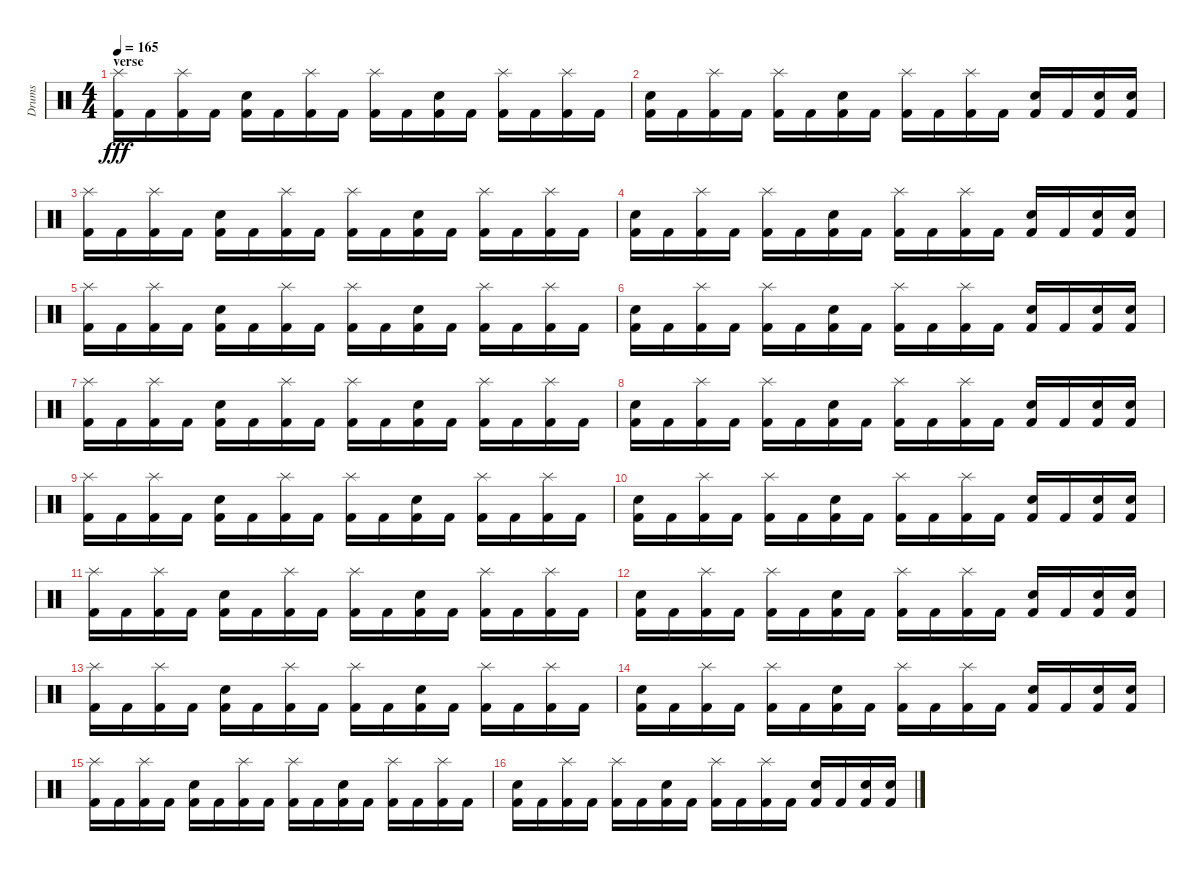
\track ("Drums" "Drums") {instrument percussion}
\staff {score}
\articulation defaults
\ts (4 4)
\section ("" "verse")
\tempo 165
\clef neutral
\ks c
("Splash (hit)" "Kick (hit) 2").16{dy fff} "Kick (hit) 2".16 ("Splash (hit)" "Kick (hit) 2").16 "Kick (hit) 2".16 ("Snare (hit) 2" "Kick (hit) 2").16 "Kick (hit) 2".16 ("Splash (hit)" "Kick (hit) 2").16 "Kick (hit) 2".16 ("Splash (hit)" "Kick (hit) 2").16 "Kick (hit) 2".16 ("Snare (hit) 2" "Kick (hit) 2").16 "Kick (hit) 2".16 ("Splash (hit)" "Kick (hit) 2").16 "Kick (hit) 2".16 ("Splash (hit)" "Kick (hit) 2").16 "Kick (hit) 2".16 |
("Snare (hit) 2" "Kick (hit) 2").16 "Kick (hit) 2".16 ("Splash (hit)" "Kick (hit) 2").16 "Kick (hit) 2".16 ("Splash (hit)" "Kick (hit) 2").16 "Kick (hit) 2".16 ("Snare (hit) 2" "Kick (hit) 2").16 "Kick (hit) 2".16 ("Splash (hit)" "Kick (hit) 2").16 "Kick (hit) 2".16 ("Splash (hit)" "Kick (hit) 2").16 "Kick (hit) 2".16 ("Snare (hit) 2" "Kick (hit) 2").16 "Kick (hit) 2".16 ("Snare (hit) 2" "Kick (hit) 2").16 ("Snare (hit) 2" "Kick (hit) 2").16 |
("Splash (hit)" "Kick (hit) 2").16 "Kick (hit) 2".16 ("Splash (hit)" "Kick (hit) 2").16 "Kick (hit) 2".16 ("Snare (hit) 2" "Kick (hit) 2").16 "Kick (hit) 2".16 ("Splash (hit)" "Kick (hit) 2").16 "Kick (hit) 2".16 ("Splash (hit)" "Kick (hit) 2").16 "Kick (hit) 2".16 ("Snare (hit) 2" "Kick (hit) 2").16 "Kick (hit) 2".16 ("Splash (hit)" "Kick (hit) 2").16 "Kick (hit) 2".16 ("Splash (hit)" "Kick (hit) 2").16 "Kick (hit) 2".16 |
("Snare (hit) 2" "Kick (hit) 2").16 "Kick (hit) 2".16 ("Splash (hit)" "Kick (hit) 2").16 "Kick (hit) 2".16 ("Splash (hit)" "Kick (hit) 2").16 "Kick (hit) 2".16 ("Snare (hit) 2" "Kick (hit) 2").16 "Kick (hit) 2".16 ("Splash (hit)" "Kick (hit) 2").16 "Kick (hit) 2".16 ("Splash (hit)" "Kick (hit) 2").16 "Kick (hit) 2".16 ("Snare (hit) 2" "Kick (hit) 2").16 "Kick (hit) 2".16 ("Snare (hit) 2" "Kick (hit) 2").16 ("Snare (hit) 2" "Kick (hit) 2").16 |
("Splash (hit)" "Kick (hit) 2").16 "Kick (hit) 2".16 ("Splash (hit)" "Kick (hit) 2").16 "Kick (hit) 2".16 ("Snare (hit) 2" "Kick (hit) 2").16 "Kick (hit) 2".16 ("Splash (hit)" "Kick (hit) 2").16 "Kick (hit) 2".16 ("Splash (hit)" "Kick (hit) 2").16 "Kick (hit) 2".16 ("Snare (hit) 2" "Kick (hit) 2").16 "Kick (hit) 2".16 ("Splash (hit)" "Kick (hit) 2").16 "Kick (hit) 2".16 ("Splash (hit)" "Kick (hit) 2").16 "Kick (hit) 2".16 |
("Snare (hit) 2" "Kick (hit) 2").16 "Kick (hit) 2".16 ("Splash (hit)" "Kick (hit) 2").16 "Kick (hit) 2".16 ("Splash (hit)" "Kick (hit) 2").16 "Kick (hit) 2".16 ("Snare (hit) 2" "Kick (hit) 2").16 "Kick (hit) 2".16 ("Splash (hit)" "Kick (hit) 2").16 "Kick (hit) 2".16 ("Splash (hit)" "Kick (hit) 2").16 "Kick (hit) 2".16 ("Snare (hit) 2" "Kick (hit) 2").16 "Kick (hit) 2".16 ("Snare (hit) 2" "Kick (hit) 2").16 ("Snare (hit) 2" "Kick (hit) 2").16 |
("Splash (hit)" "Kick (hit) 2").16 "Kick (hit) 2".16 ("Splash (hit)" "Kick (hit) 2").16 "Kick (hit) 2".16 ("Snare (hit) 2" "Kick (hit) 2").16 "Kick (hit) 2".16 ("Splash (hit)" "Kick (hit) 2").16 "Kick (hit) 2".16 ("Splash (hit)" "Kick (hit) 2").16 "Kick (hit) 2".16 ("Snare (hit) 2" "Kick (hit) 2").16 "Kick (hit) 2".16 ("Splash (hit)" "Kick (hit) 2").16 "Kick (hit) 2".16 ("Splash (hit)" "Kick (hit) 2").16 "Kick (hit) 2".16 |
("Snare (hit) 2" "Kick (hit) 2").16 "Kick (hit) 2".16 ("Splash (hit)" "Kick (hit) 2").16 "Kick (hit) 2".16 ("Splash (hit)" "Kick (hit) 2").16 "Kick (hit) 2".16 ("Snare (hit) 2" "Kick (hit) 2").16 "Kick (hit) 2".16 ("Splash (hit)" "Kick (hit) 2").16 "Kick (hit) 2".16 ("Splash (hit)" "Kick (hit) 2").16 "Kick (hit) 2".16 ("Snare (hit) 2" "Kick (hit) 2").16 "Kick (hit) 2".16 ("Snare (hit) 2" "Kick (hit) 2").16 ("Snare (hit) 2" "Kick (hit) 2").16 |
("Splash (hit)" "Kick (hit) 2").16 "Kick (hit) 2".16 ("Splash (hit)" "Kick (hit) 2").16 "Kick (hit) 2".16 ("Snare (hit) 2" "Kick (hit) 2").16 "Kick (hit) 2".16 ("Splash (hit)" "Kick (hit) 2").16 "Kick (hit) 2".16 ("Splash (hit)" "Kick (hit) 2").16 "Kick (hit) 2".16 ("Snare (hit) 2" "Kick (hit) 2").16 "Kick (hit) 2".16 ("Splash (hit)" "Kick (hit) 2").16 "Kick (hit) 2".16 ("Splash (hit)" "Kick (hit) 2").16 "Kick (hit) 2".16 |
("Snare (hit) 2" "Kick (hit) 2").16 "Kick (hit) 2".16 ("Splash (hit)" "Kick (hit) 2").16 "Kick (hit) 2".16 ("Splash (hit)" "Kick (hit) 2").16 "Kick (hit) 2".16 ("Snare (hit) 2" "Kick (hit) 2").16 "Kick (hit) 2".16 ("Splash (hit)" "Kick (hit) 2").16 "Kick (hit) 2".16 ("Splash (hit)" "Kick (hit) 2").16 "Kick (hit) 2".16 ("Snare (hit) 2" "Kick (hit) 2").16 "Kick (hit) 2".16 ("Snare (hit) 2" "Kick (hit) 2").16 ("Snare (hit) 2" "Kick (hit) 2").16 |
("Splash (hit)" "Kick (hit) 2").16 "Kick (hit) 2".16 ("Splash (hit)" "Kick (hit) 2").16 "Kick (hit) 2".16 ("Snare (hit) 2" "Kick (hit) 2").16 "Kick (hit) 2".16 ("Splash (hit)" "Kick (hit) 2").16 "Kick (hit) 2".16 ("Splash (hit)" "Kick (hit) 2").16 "Kick (hit) 2".16 ("Snare (hit) 2" "Kick (hit) 2").16 "Kick (hit) 2".16 ("Splash (hit)" "Kick (hit) 2").16 "Kick (hit) 2".16 ("Splash (hit)" "Kick (hit) 2").16 "Kick (hit) 2".16 |
("Snare (hit) 2" "Kick (hit) 2").16 "Kick (hit) 2".16 ("Splash (hit)" "Kick (hit) 2").16 "Kick (hit) 2".16 ("Splash (hit)" "Kick (hit) 2").16 "Kick (hit) 2".16 ("Snare (hit) 2" "Kick (hit) 2").16 "Kick (hit) 2".16 ("Splash (hit)" "Kick (hit) 2").16 "Kick (hit) 2".16 ("Splash (hit)" "Kick (hit) 2").16 "Kick (hit) 2".16 ("Snare (hit) 2" "Kick (hit) 2").16 "Kick (hit) 2".16 ("Snare (hit) 2" "Kick (hit) 2").16 ("Snare (hit) 2" "Kick (hit) 2").16 |
("Splash (hit)" "Kick (hit) 2").16 "Kick (hit) 2".16 ("Splash (hit)" "Kick (hit) 2").16 "Kick (hit) 2".16 ("Snare (hit) 2" "Kick (hit) 2").16 "Kick (hit) 2".16 ("Splash (hit)" "Kick (hit) 2").16 "Kick (hit) 2".16 ("Splash (hit)" "Kick (hit) 2").16 "Kick (hit) 2".16 ("Snare (hit) 2" "Kick (hit) 2").16 "Kick (hit) 2".16 ("Splash (hit)" "Kick (hit) 2").16 "Kick (hit) 2".16 ("Splash (hit)" "Kick (hit) 2").16 "Kick (hit) 2".16 |
("Snare (hit) 2" "Kick (hit) 2").16 "Kick (hit) 2".16 ("Splash (hit)" "Kick (hit) 2").16 "Kick (hit) 2".16 ("Splash (hit)" "Kick (hit) 2").16 "Kick (hit) 2".16 ("Snare (hit) 2" "Kick (hit) 2").16 "Kick (hit) 2".16 ("Splash (hit)" "Kick (hit) 2").16 "Kick (hit) 2".16 ("Splash (hit)" "Kick (hit) 2").16 "Kick (hit) 2".16 ("Snare (hit) 2" "Kick (hit) 2").16 "Kick (hit) 2".16 ("Snare (hit) 2" "Kick (hit) 2").16 ("Snare (hit) 2" "Kick (hit) 2").16 |
("Splash (hit)" "Kick (hit) 2").16 "Kick (hit) 2".16 ("Splash (hit)" "Kick (hit) 2").16 "Kick (hit) 2".16 ("Snare (hit) 2" "Kick (hit) 2").16 "Kick (hit) 2".16 ("Splash (hit)" "Kick (hit) 2").16 "Kick (hit) 2".16 ("Splash (hit)" "Kick (hit) 2").16 "Kick (hit) 2".16 ("Snare (hit) 2" "Kick (hit) 2").16 "Kick (hit) 2".16 ("Splash (hit)" "Kick (hit) 2").16 "Kick (hit) 2".16 ("Splash (hit)" "Kick (hit) 2").16 "Kick (hit) 2".16 |
("Snare (hit) 2" "Kick (hit) 2").16 "Kick (hit) 2".16 ("Splash (hit)" "Kick (hit) 2").16 "Kick (hit) 2".16 ("Splash (hit)" "Kick (hit) 2").16 "Kick (hit) 2".16 ("Snare (hit) 2" "Kick (hit) 2").16 "Kick (hit) 2".16 ("Splash (hit)" "Kick (hit) 2").16 "Kick (hit) 2".16 ("Splash (hit)" "Kick (hit) 2").16 "Kick (hit) 2".16 ("Snare (hit) 2" "Kick (hit) 2").16 "Kick (hit) 2".16 ("Snare (hit) 2" "Kick (hit) 2").16 ("Snare (hit) 2" "Kick (hit) 2").16
